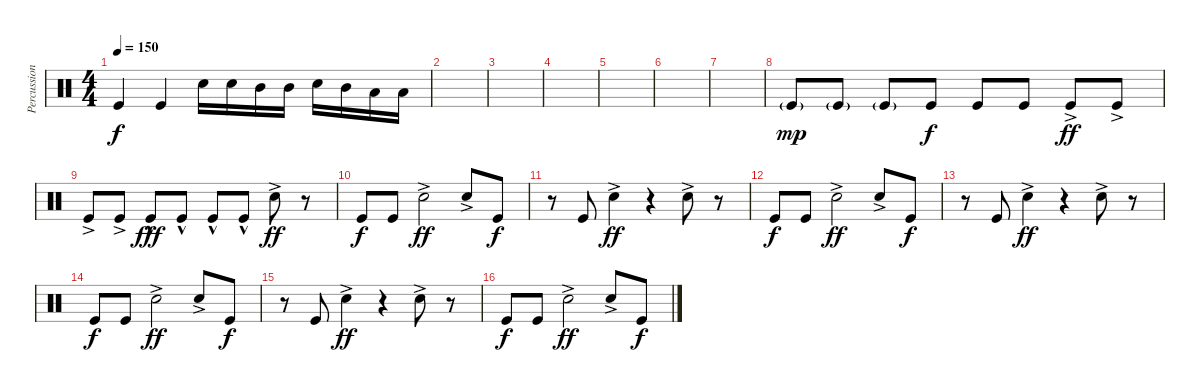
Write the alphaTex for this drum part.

\track ("Percussion" "Percussion") {instrument percussion}
\staff {score}
\articulation defaults
\ts (4 4)
\tempo 150
\clef neutral
\ks c "Kick (hit)".4{dy f} "Kick (hit)".4 "Snare (hit) 2".16 "Snare (hit) 2".16 "Mid Tom (hit)".16 "Mid Tom (hit)".16 "Snare (hit) 2".16 "Mid Tom (hit)".16 "Low Tom (hit)".16 "Low Floor Tom (hit)".16
|
|
|
|
|
|
|
"Kick (hit)"{g}.8{dy mp} "Kick (hit)"{g}.8 "Kick (hit)"{g}.8 "Kick (hit)".8{dy f} "Kick (hit)".8 "Kick (hit)".8 "Kick (hit)"{ac}.8{dy ff} "Kick (hit)"{ac}.8 |
"Kick (hit)"{ac}.8 "Kick (hit)"{ac}.8 "Kick (hit)"{hac}.8{dy fff} "Kick (hit)"{hac}.8 "Kick (hit)"{hac}.8 "Kick (hit)"{hac}.8 "Snare (hit) 2"{ac}.8{dy ff} r.8 |
"Kick (hit)".8{dy f} "Kick (hit)".8 "Snare (hit) 2"{ac}.2{dy ff} "Snare (hit) 2"{ac}.8 "Kick (hit)".8{dy f} |
r.8 "Kick (hit)".8 "Snare (hit) 2"{ac}.4{dy ff} r.4 "Snare (hit) 2"{ac}.8 r.8 |
"Kick (hit)".8{dy f} "Kick (hit)".8 "Snare (hit) 2"{ac}.2{dy ff} "Snare (hit) 2"{ac}.8 "Kick (hit)".8{dy f} |
r.8 "Kick (hit)".8 "Snare (hit) 2"{ac}.4{dy ff} r.4 "Snare (hit) 2"{ac}.8 r.8 |
"Kick (hit)".8{dy f} "Kick (hit)".8 "Snare (hit) 2"{ac}.2{dy ff} "Snare (hit) 2"{ac}.8 "Kick (hit)".8{dy f} |
r.8 "Kick (hit)".8 "Snare (hit) 2"{ac}.4{dy ff} r.4 "Snare (hit) 2"{ac}.8 r.8 |
"Kick (hit)".8{dy f} "Kick (hit)".8 "Snare (hit) 2"{ac}.2{dy ff} "Snare (hit) 2"{ac}.8 "Kick (hit)".8{dy f}
